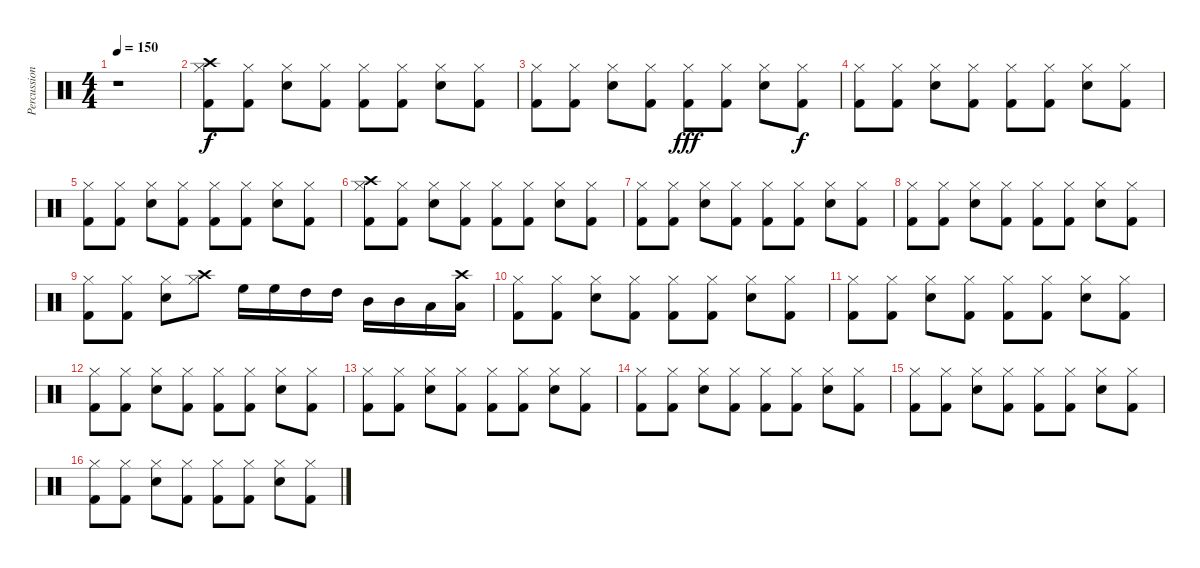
\track ("Percussion" "Percussion") {instrument percussion}
\staff {score}
\articulation defaults
\ts (4 4)
\tempo 150
\clef neutral
\ks c
r.1{dy f} |
("Crash high (hit)" "Hi-Hat (closed)" "Kick (hit) 2").8 ("Hi-Hat (closed)" "Kick (hit) 2").8 ("Hi-Hat (closed)" "Snare (hit) 2").8 ("Hi-Hat (closed)" "Kick (hit) 2").8 ("Hi-Hat (closed)" "Kick (hit) 2").8 ("Hi-Hat (closed)" "Kick (hit) 2").8 ("Hi-Hat (closed)" "Snare (hit) 2").8 ("Hi-Hat (closed)" "Kick (hit) 2").8 |
("Hi-Hat (closed)" "Kick (hit) 2").8 ("Hi-Hat (closed)" "Kick (hit) 2").8 ("Hi-Hat (closed)" "Snare (hit) 2").8 ("Hi-Hat (closed)" "Kick (hit) 2").8 ("Hi-Hat (closed)" "Kick (hit) 2").8{dy fff} ("Hi-Hat (closed)" "Kick (hit) 2").8 ("Hi-Hat (closed)" "Snare (hit) 2").8 ("Hi-Hat (closed)" "Kick (hit) 2").8{dy f} |
("Hi-Hat (closed)" "Kick (hit) 2").8 ("Hi-Hat (closed)" "Kick (hit) 2").8 ("Hi-Hat (closed)" "Snare (hit) 2").8 ("Hi-Hat (closed)" "Kick (hit) 2").8 ("Hi-Hat (closed)" "Kick (hit) 2").8 ("Hi-Hat (closed)" "Kick (hit) 2").8 ("Hi-Hat (closed)" "Snare (hit) 2").8 ("Hi-Hat (closed)" "Kick (hit) 2").8 |
("Hi-Hat (closed)" "Kick (hit) 2").8 ("Hi-Hat (closed)" "Kick (hit) 2").8 ("Hi-Hat (closed)" "Snare (hit) 2").8 ("Hi-Hat (closed)" "Kick (hit) 2").8 ("Hi-Hat (closed)" "Kick (hit) 2").8 ("Hi-Hat (closed)" "Kick (hit) 2").8 ("Hi-Hat (closed)" "Snare (hit) 2").8 ("Hi-Hat (closed)" "Kick (hit) 2").8 |
("Hi-Hat (closed)" "Crash high (hit)" "Kick (hit) 2").8 ("Hi-Hat (closed)" "Kick (hit) 2").8 ("Hi-Hat (closed)" "Snare (hit) 2").8 ("Hi-Hat (closed)" "Kick (hit) 2").8 ("Hi-Hat (closed)" "Kick (hit) 2").8 ("Hi-Hat (closed)" "Kick (hit) 2").8 ("Hi-Hat (closed)" "Snare (hit) 2").8 ("Hi-Hat (closed)" "Kick (hit) 2").8 |
("Hi-Hat (closed)" "Kick (hit) 2").8 ("Hi-Hat (closed)" "Kick (hit) 2").8 ("Hi-Hat (closed)" "Snare (hit) 2").8 ("Hi-Hat (closed)" "Kick (hit) 2").8 ("Hi-Hat (closed)" "Kick (hit) 2").8 ("Hi-Hat (closed)" "Kick (hit) 2").8 ("Hi-Hat (closed)" "Snare (hit) 2").8 ("Hi-Hat (closed)" "Kick (hit) 2").8 |
("Hi-Hat (closed)" "Kick (hit) 2").8 ("Hi-Hat (closed)" "Kick (hit) 2").8 ("Hi-Hat (closed)" "Snare (hit) 2").8 ("Hi-Hat (closed)" "Kick (hit) 2").8 ("Hi-Hat (closed)" "Kick (hit) 2").8 ("Hi-Hat (closed)" "Kick (hit) 2").8 ("Hi-Hat (closed)" "Snare (hit) 2").8 ("Hi-Hat (closed)" "Kick (hit) 2").8 |
("Hi-Hat (closed)" "Kick (hit) 2").8 ("Hi-Hat (closed)" "Kick (hit) 2").8 ("Hi-Hat (closed)" "Snare (hit) 2").8 ("Crash high (hit)" "Hi-Hat (closed)").8 "High Floor Tom (hit)".16 "High Floor Tom (hit)".16 "High Tom (hit)".16 "High Tom (hit)".16 "Mid Tom (hit)".16 "Mid Tom (hit)".16 "Low Tom (hit)".16 ("Crash high (hit)" "Low Tom (hit)").16 |
("Hi-Hat (closed)" "Kick (hit) 2").8 ("Hi-Hat (closed)" "Kick (hit) 2").8 ("Hi-Hat (closed)" "Snare (hit) 2").8 ("Hi-Hat (closed)" "Kick (hit) 2").8 ("Hi-Hat (closed)" "Kick (hit) 2").8 ("Hi-Hat (closed)" "Kick (hit) 2").8 ("Hi-Hat (closed)" "Snare (hit) 2").8 ("Hi-Hat (closed)" "Kick (hit) 2").8 |
("Hi-Hat (closed)" "Kick (hit) 2").8 ("Hi-Hat (closed)" "Kick (hit) 2").8 ("Hi-Hat (closed)" "Snare (hit) 2").8 ("Hi-Hat (closed)" "Kick (hit) 2").8 ("Hi-Hat (closed)" "Kick (hit) 2").8 ("Hi-Hat (closed)" "Kick (hit) 2").8 ("Hi-Hat (closed)" "Snare (hit) 2").8 ("Hi-Hat (closed)" "Kick (hit) 2").8 |
("Hi-Hat (closed)" "Kick (hit) 2").8 ("Hi-Hat (closed)" "Kick (hit) 2").8 ("Hi-Hat (closed)" "Snare (hit) 2").8 ("Hi-Hat (closed)" "Kick (hit) 2").8 ("Hi-Hat (closed)" "Kick (hit) 2").8 ("Hi-Hat (closed)" "Kick (hit) 2").8 ("Hi-Hat (closed)" "Snare (hit) 2").8 ("Hi-Hat (closed)" "Kick (hit) 2").8 |
("Hi-Hat (closed)" "Kick (hit) 2").8 ("Hi-Hat (closed)" "Kick (hit) 2").8 ("Hi-Hat (closed)" "Snare (hit) 2").8 ("Hi-Hat (closed)" "Kick (hit) 2").8 ("Hi-Hat (closed)" "Kick (hit) 2").8 ("Hi-Hat (closed)" "Kick (hit) 2").8 ("Hi-Hat (closed)" "Snare (hit) 2").8 ("Hi-Hat (closed)" "Kick (hit) 2").8 |
("Hi-Hat (closed)" "Kick (hit) 2").8 ("Hi-Hat (closed)" "Kick (hit) 2").8 ("Hi-Hat (closed)" "Snare (hit) 2").8 ("Hi-Hat (closed)" "Kick (hit) 2").8 ("Hi-Hat (closed)" "Kick (hit) 2").8 ("Hi-Hat (closed)" "Kick (hit) 2").8 ("Hi-Hat (closed)" "Snare (hit) 2").8 ("Hi-Hat (closed)" "Kick (hit) 2").8 |
("Hi-Hat (closed)" "Kick (hit) 2").8 ("Hi-Hat (closed)" "Kick (hit) 2").8 ("Hi-Hat (closed)" "Snare (hit) 2").8 ("Hi-Hat (closed)" "Kick (hit) 2").8 ("Hi-Hat (closed)" "Kick (hit) 2").8 ("Hi-Hat (closed)" "Kick (hit) 2").8 ("Hi-Hat (closed)" "Snare (hit) 2").8 ("Hi-Hat (closed)" "Kick (hit) 2").8 |
("Hi-Hat (closed)" "Kick (hit) 2").8 ("Hi-Hat (closed)" "Kick (hit) 2").8 ("Hi-Hat (closed)" "Snare (hit) 2").8 ("Hi-Hat (closed)" "Kick (hit) 2").8 ("Hi-Hat (closed)" "Kick (hit) 2").8 ("Hi-Hat (closed)" "Kick (hit) 2").8 ("Hi-Hat (closed)" "Snare (hit) 2").8 ("Hi-Hat (closed)" "Kick (hit) 2").8
